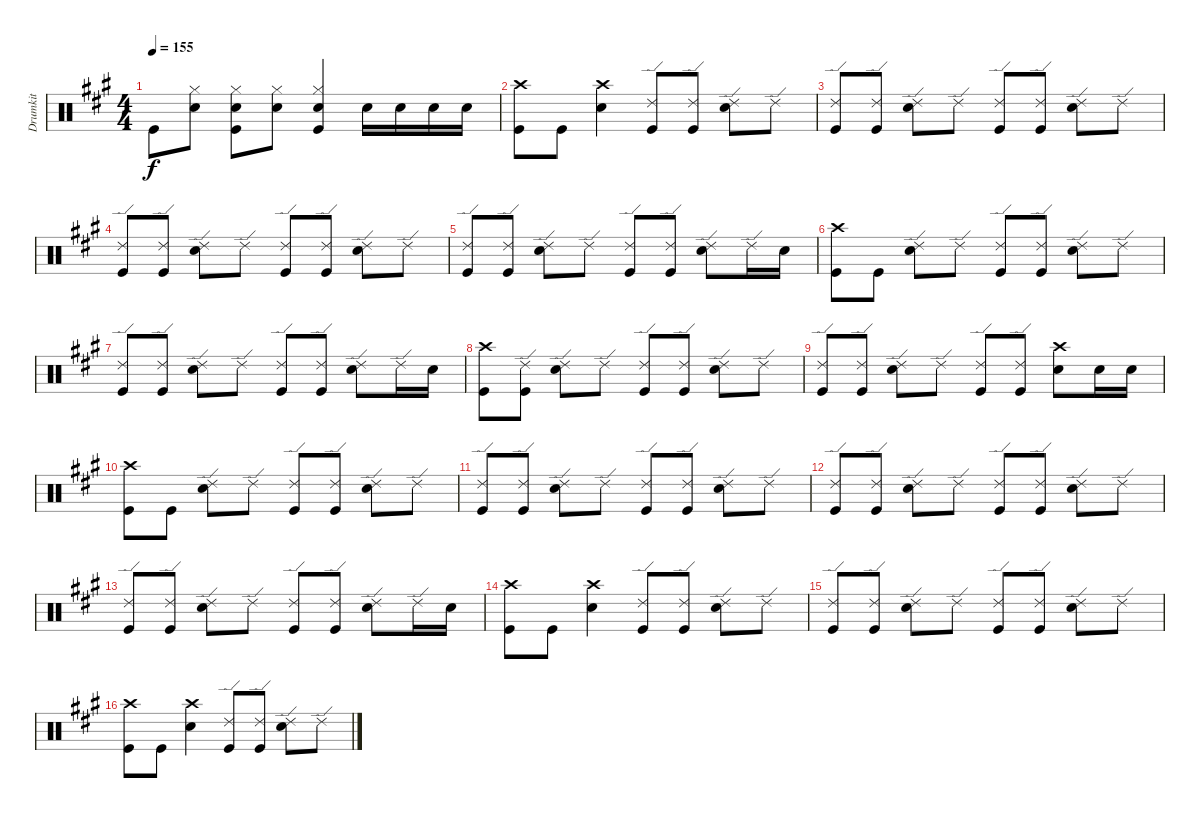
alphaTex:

\track ("Drumkit" "Drumkit") {instrument percussion}
\staff {score}
\articulation defaults
\ts (4 4)
\tempo 155
\clef neutral
\ks a "Kick (hit)".8{dy f}
("Hi-Hat (closed)" "Snare (hit) 2").8 ("Hi-Hat (closed)" "Snare (hit) 2" "Kick (hit)").8 ("Hi-Hat (closed)" "Snare (hit) 2").8 ("Hi-Hat (closed)" "Snare (hit) 2" "Kick (hit)").4 "Snare (hit) 2".16 "Snare (hit) 2".16 "Snare (hit) 2".16 "Snare (hit) 2".16 |
("Crash high (hit)" "Kick (hit)").8 "Kick (hit)".8 ("Crash high (hit)" "Snare (hit) 2").4 ("Ride (edge) 2" "Kick (hit)").8 ("Ride (edge) 2" "Kick (hit)").8 ("Ride (edge) 2" "Snare (hit) 2").8 "Ride (edge) 2".8 |
("Ride (edge) 2" "Kick (hit)").8 ("Ride (edge) 2" "Kick (hit)").8 ("Ride (edge) 2" "Snare (hit) 2").8 "Ride (edge) 2".8 ("Ride (edge) 2" "Kick (hit)").8 ("Ride (edge) 2" "Kick (hit)").8 ("Ride (edge) 2" "Snare (hit) 2").8 "Ride (edge) 2".8 |
("Ride (edge) 2" "Kick (hit)").8 ("Ride (edge) 2" "Kick (hit)").8 ("Ride (edge) 2" "Snare (hit) 2").8 "Ride (edge) 2".8 ("Ride (edge) 2" "Kick (hit)").8 ("Ride (edge) 2" "Kick (hit)").8 ("Ride (edge) 2" "Snare (hit) 2").8 "Ride (edge) 2".8 |
("Ride (edge) 2" "Kick (hit)").8 ("Ride (edge) 2" "Kick (hit)").8 ("Ride (edge) 2" "Snare (hit) 2").8 "Ride (edge) 2".8 ("Ride (edge) 2" "Kick (hit)").8 ("Ride (edge) 2" "Kick (hit)").8 ("Ride (edge) 2" "Snare (hit) 2").8 "Ride (edge) 2".16 "Snare (hit) 2".16 |
("Crash high (hit)" "Kick (hit)").8 "Kick (hit)".8 ("Ride (edge) 2" "Snare (hit) 2").8 "Ride (edge) 2".8 ("Ride (edge) 2" "Kick (hit)").8 ("Ride (edge) 2" "Kick (hit)").8 ("Ride (edge) 2" "Snare (hit) 2").8 "Ride (edge) 2".8 |
("Ride (edge) 2" "Kick (hit)").8 ("Ride (edge) 2" "Kick (hit)").8 ("Ride (edge) 2" "Snare (hit) 2").8 "Ride (edge) 2".8 ("Ride (edge) 2" "Kick (hit)").8 ("Ride (edge) 2" "Kick (hit)").8 ("Ride (edge) 2" "Snare (hit) 2").8 "Ride (edge) 2".16 "Snare (hit) 2".16 |
("Crash high (hit)" "Kick (hit)").8 ("Ride (edge) 2" "Kick (hit)").8 ("Ride (edge) 2" "Snare (hit) 2").8 "Ride (edge) 2".8 ("Ride (edge) 2" "Kick (hit)").8 ("Ride (edge) 2" "Kick (hit)").8 ("Ride (edge) 2" "Snare (hit) 2").8 "Ride (edge) 2".8 |
("Ride (edge) 2" "Kick (hit)").8 ("Ride (edge) 2" "Kick (hit)").8 ("Ride (edge) 2" "Snare (hit) 2").8 "Ride (edge) 2".8 ("Ride (edge) 2" "Kick (hit)").8 ("Ride (edge) 2" "Kick (hit)").8 ("Crash high (hit)" "Snare (hit) 2").8 "Snare (hit) 2".16 "Snare (hit) 2".16 |
("Crash high (hit)" "Kick (hit)").8 "Kick (hit)".8 ("Ride (edge) 2" "Snare (hit) 2").8 "Ride (edge) 2".8 ("Ride (edge) 2" "Kick (hit)").8 ("Ride (edge) 2" "Kick (hit)").8 ("Ride (edge) 2" "Snare (hit) 2").8 "Ride (edge) 2".8 |
("Ride (edge) 2" "Kick (hit)").8 ("Ride (edge) 2" "Kick (hit)").8 ("Ride (edge) 2" "Snare (hit) 2").8 "Ride (edge) 2".8 ("Ride (edge) 2" "Kick (hit)").8 ("Ride (edge) 2" "Kick (hit)").8 ("Ride (edge) 2" "Snare (hit) 2").8 "Ride (edge) 2".8 |
("Ride (edge) 2" "Kick (hit)").8 ("Ride (edge) 2" "Kick (hit)").8 ("Ride (edge) 2" "Snare (hit) 2").8 "Ride (edge) 2".8 ("Ride (edge) 2" "Kick (hit)").8 ("Ride (edge) 2" "Kick (hit)").8 ("Ride (edge) 2" "Snare (hit) 2").8 "Ride (edge) 2".8 |
("Ride (edge) 2" "Kick (hit)").8 ("Ride (edge) 2" "Kick (hit)").8 ("Ride (edge) 2" "Snare (hit) 2").8 "Ride (edge) 2".8 ("Ride (edge) 2" "Kick (hit)").8 ("Ride (edge) 2" "Kick (hit)").8 ("Ride (edge) 2" "Snare (hit) 2").8 "Ride (edge) 2".16 "Snare (hit) 2".16 |
("Crash high (hit)" "Kick (hit)").8 "Kick (hit)".8 ("Crash high (hit)" "Snare (hit) 2").4 ("Ride (edge) 2" "Kick (hit)").8 ("Ride (edge) 2" "Kick (hit)").8 ("Ride (edge) 2" "Snare (hit) 2").8 "Ride (edge) 2".8 |
("Ride (edge) 2" "Kick (hit)").8 ("Ride (edge) 2" "Kick (hit)").8 ("Ride (edge) 2" "Snare (hit) 2").8 "Ride (edge) 2".8 ("Ride (edge) 2" "Kick (hit)").8 ("Ride (edge) 2" "Kick (hit)").8 ("Ride (edge) 2" "Snare (hit) 2").8 "Ride (edge) 2".8 |
("Crash high (hit)" "Kick (hit)").8 "Kick (hit)".8 ("Crash high (hit)" "Snare (hit) 2").4 ("Ride (edge) 2" "Kick (hit)").8 ("Ride (edge) 2" "Kick (hit)").8 ("Ride (edge) 2" "Snare (hit) 2").8 "Ride (edge) 2".8
